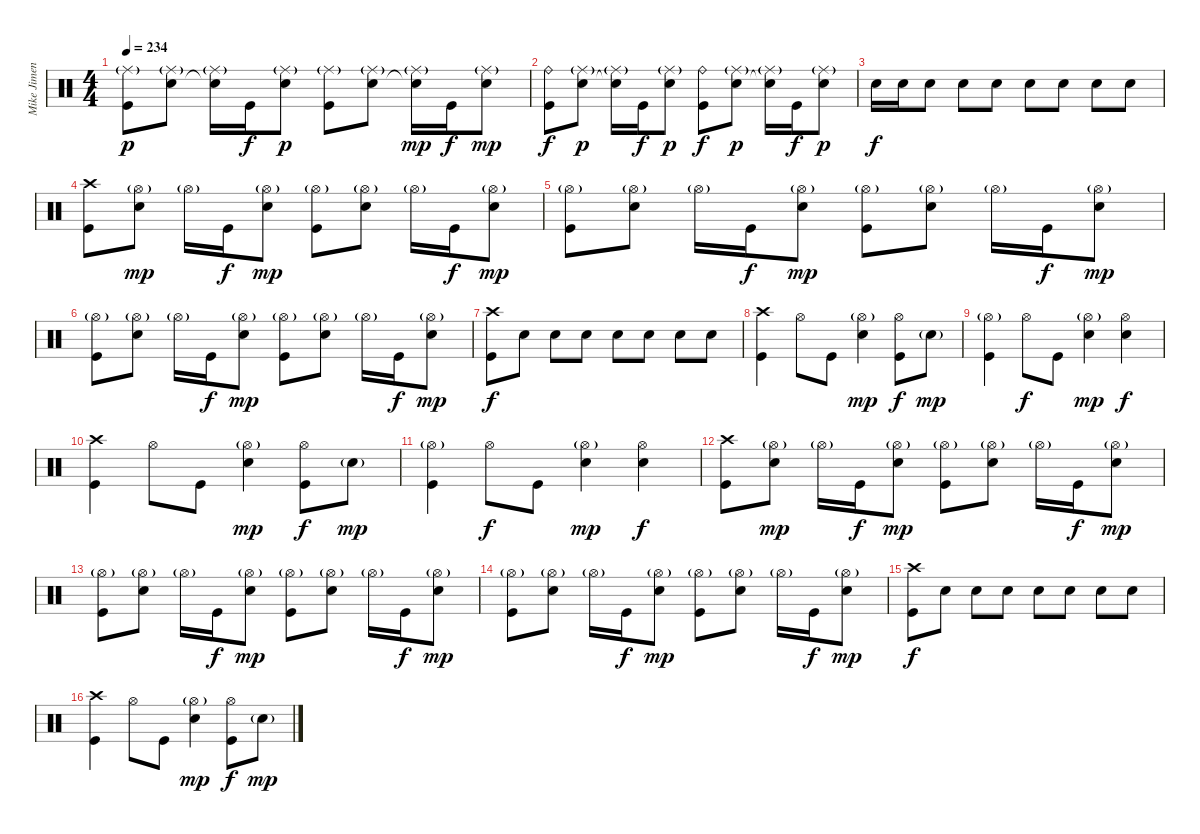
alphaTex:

\track ("Mike Jimenez" "Mike Jimen") {instrument percussion}
\staff {score}
\articulation defaults
\ts (4 4)
\tempo 234
\clef neutral
\ks c
("Ride (middle)"{g} "Kick (hit)").8{dy p} ("Ride (middle)"{g} "Electric Snare (hit)").8 ("Ride (middle)"{g} "Snare (hit)"{t}).16 "Kick (hit)".16{dy f} ("Ride (middle)"{g} "Electric Snare (hit)").8{dy p} ("Ride (middle)"{g} "Kick (hit)").8 ("Ride (middle)"{g} "Electric Snare (hit)").8 ("Ride (middle)"{g} "Snare (hit)"{t}).16{dy mp} "Kick (hit)".16{dy f} ("Ride (middle)"{g} "Electric Snare (hit)").8{dy mp} |
("Ride (bell)" "Kick (hit)").8{dy f} ("Ride (middle)"{g} "Electric Snare (hit)").8{dy p} ("Ride (middle)"{g} "Snare (hit)"{t}).16 "Kick (hit)".16{dy f} ("Ride (middle)"{g} "Electric Snare (hit)").8{dy p} ("Ride (bell)" "Kick (hit)").8{dy f} ("Ride (middle)"{g} "Electric Snare (hit)").8{dy p} ("Ride (middle)"{g} "Snare (hit)"{t}).16 "Kick (hit)".16{dy f} ("Ride (middle)"{g} "Electric Snare (hit)").8{dy p} |
"Electric Snare (hit)".16{dy f} "Electric Snare (hit)".16 "Electric Snare (hit)".8 "Electric Snare (hit)".8 "Electric Snare (hit)".8 "Electric Snare (hit)".8 "Electric Snare (hit)".8 "Electric Snare (hit)".8 "Electric Snare (hit)".8 |
("Crash high (hit)" "Kick (hit)").8 ("Hi-Hat (open)"{g} "Electric Snare (hit)").8{dy mp} "Hi-Hat (open)"{g}.16 "Kick (hit)".16{dy f} ("Hi-Hat (open)"{g} "Electric Snare (hit)").8{dy mp} ("Hi-Hat (open)"{g} "Kick (hit)").8 ("Hi-Hat (open)"{g} "Electric Snare (hit)").8 "Hi-Hat (open)"{g}.16 "Kick (hit)".16{dy f} ("Hi-Hat (open)"{g} "Electric Snare (hit)").8{dy mp} |
("Hi-Hat (open)"{g} "Kick (hit)").8 ("Hi-Hat (open)"{g} "Electric Snare (hit)").8 "Hi-Hat (open)"{g}.16 "Kick (hit)".16{dy f} ("Hi-Hat (open)"{g} "Electric Snare (hit)").8{dy mp} ("Hi-Hat (open)"{g} "Kick (hit)").8 ("Hi-Hat (open)"{g} "Electric Snare (hit)").8 "Hi-Hat (open)"{g}.16 "Kick (hit)".16{dy f} ("Hi-Hat (open)"{g} "Electric Snare (hit)").8{dy mp} |
("Hi-Hat (open)"{g} "Kick (hit)").8 ("Hi-Hat (open)"{g} "Electric Snare (hit)").8 "Hi-Hat (open)"{g}.16 "Kick (hit)".16{dy f} ("Hi-Hat (open)"{g} "Electric Snare (hit)").8{dy mp} ("Hi-Hat (open)"{g} "Kick (hit)").8 ("Hi-Hat (open)"{g} "Electric Snare (hit)").8 "Hi-Hat (open)"{g}.16 "Kick (hit)".16{dy f} ("Hi-Hat (open)"{g} "Electric Snare (hit)").8{dy mp} |
("Crash high (hit)" "Kick (hit)").8{dy f} "Electric Snare (hit)".8 "Electric Snare (hit)".8 "Electric Snare (hit)".8 "Electric Snare (hit)".8 "Electric Snare (hit)".8 "Electric Snare (hit)".8 "Electric Snare (hit)".8 |
("Crash high (hit)" "Kick (hit)").4 "Hi-Hat (open)".8 "Kick (hit)".8 ("Hi-Hat (open)"{g} "Electric Snare (hit)").4{dy mp} ("Hi-Hat (open)" "Kick (hit)").8{dy f} "Electric Snare (hit)"{g}.8{dy mp} |
("Hi-Hat (open)"{g} "Kick (hit)").4 "Hi-Hat (open)".8{dy f} "Kick (hit)".8 ("Hi-Hat (open)"{g} "Electric Snare (hit)").4{dy mp} ("Hi-Hat (open)" "Electric Snare (hit)").4{dy f} |
("Crash high (hit)" "Kick (hit)").4 "Hi-Hat (open)".8 "Kick (hit)".8 ("Hi-Hat (open)"{g} "Electric Snare (hit)").4{dy mp} ("Hi-Hat (open)" "Kick (hit)").8{dy f} "Electric Snare (hit)"{g}.8{dy mp} |
("Hi-Hat (open)"{g} "Kick (hit)").4 "Hi-Hat (open)".8{dy f} "Kick (hit)".8 ("Hi-Hat (open)"{g} "Electric Snare (hit)").4{dy mp} ("Hi-Hat (open)" "Electric Snare (hit)").4{dy f} |
("Crash high (hit)" "Kick (hit)").8 ("Hi-Hat (open)"{g} "Electric Snare (hit)").8{dy mp} "Hi-Hat (open)"{g}.16 "Kick (hit)".16{dy f} ("Hi-Hat (open)"{g} "Electric Snare (hit)").8{dy mp} ("Hi-Hat (open)"{g} "Kick (hit)").8 ("Hi-Hat (open)"{g} "Electric Snare (hit)").8 "Hi-Hat (open)"{g}.16 "Kick (hit)".16{dy f} ("Hi-Hat (open)"{g} "Electric Snare (hit)").8{dy mp} |
("Hi-Hat (open)"{g} "Kick (hit)").8 ("Hi-Hat (open)"{g} "Electric Snare (hit)").8 "Hi-Hat (open)"{g}.16 "Kick (hit)".16{dy f} ("Hi-Hat (open)"{g} "Electric Snare (hit)").8{dy mp} ("Hi-Hat (open)"{g} "Kick (hit)").8 ("Hi-Hat (open)"{g} "Electric Snare (hit)").8 "Hi-Hat (open)"{g}.16 "Kick (hit)".16{dy f} ("Hi-Hat (open)"{g} "Electric Snare (hit)").8{dy mp} |
("Hi-Hat (open)"{g} "Kick (hit)").8 ("Hi-Hat (open)"{g} "Electric Snare (hit)").8 "Hi-Hat (open)"{g}.16 "Kick (hit)".16{dy f} ("Hi-Hat (open)"{g} "Electric Snare (hit)").8{dy mp} ("Hi-Hat (open)"{g} "Kick (hit)").8 ("Hi-Hat (open)"{g} "Electric Snare (hit)").8 "Hi-Hat (open)"{g}.16 "Kick (hit)".16{dy f} ("Hi-Hat (open)"{g} "Electric Snare (hit)").8{dy mp} |
("Crash high (hit)" "Kick (hit)").8{dy f} "Electric Snare (hit)".8 "Electric Snare (hit)".8 "Electric Snare (hit)".8 "Electric Snare (hit)".8 "Electric Snare (hit)".8 "Electric Snare (hit)".8 "Electric Snare (hit)".8 |
("Crash high (hit)" "Kick (hit)").4 "Hi-Hat (open)".8 "Kick (hit)".8 ("Hi-Hat (open)"{g} "Electric Snare (hit)").4{dy mp} ("Hi-Hat (open)" "Kick (hit)").8{dy f} "Electric Snare (hit)"{g}.8{dy mp}
